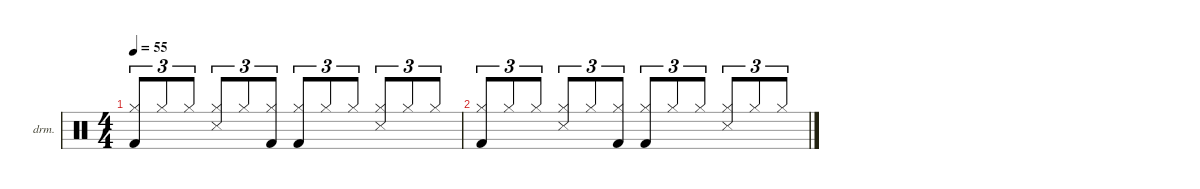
\defaultSystemsLayout 4
\hideDynamics
\bracketExtendMode nobrackets
\firstSystemTrackNameOrientation horizontal
\otherSystemsTrackNameOrientation horizontal
\track ("Drumkit" "drm.") {defaultSystemsLayout 4 instrument percussion}
\staff {score}
\articulation defaults
\ts (4 4)
\tempo 55
\clef neutral
\ks c
("Hi-Hat (closed)" "Kick (hit) 2").8{tu (3 2) dy mf beam Up} "Hi-Hat (closed)".8{tu (3 2) beam Up} "Hi-Hat (closed)".8{tu (3 2) beam Up} ("Hi-Hat (closed)" "Snare (side stick) 3").8{tu (3 2) beam Up} "Hi-Hat (closed)".8{tu (3 2) beam Up} ("Hi-Hat (closed)" "Kick (hit) 2").8{tu (3 2) beam Up} ("Hi-Hat (closed)" "Kick (hit) 2").8{tu (3 2) beam Up} "Hi-Hat (closed)".8{tu (3 2) beam Up} "Hi-Hat (closed)".8{tu (3 2) beam Up} ("Hi-Hat (closed)" "Snare (side stick) 3").8{tu (3 2) beam Up} "Hi-Hat (closed)".8{tu (3 2) beam Up} "Hi-Hat (closed)".8{tu (3 2) beam Up} |
("Hi-Hat (closed)" "Kick (hit) 2").8{tu (3 2) beam Up} "Hi-Hat (closed)".8{tu (3 2) beam Up} "Hi-Hat (closed)".8{tu (3 2) beam Up} ("Hi-Hat (closed)" "Snare (side stick) 3").8{tu (3 2) beam Up} "Hi-Hat (closed)".8{tu (3 2) beam Up} ("Hi-Hat (closed)" "Kick (hit) 2").8{tu (3 2) beam Up} ("Hi-Hat (closed)" "Kick (hit) 2").8{tu (3 2) beam Up} "Hi-Hat (closed)".8{tu (3 2) beam Up} "Hi-Hat (closed)".8{tu (3 2) beam Up} ("Hi-Hat (closed)" "Snare (side stick) 3").8{tu (3 2) beam Up} "Hi-Hat (closed)".8{tu (3 2) beam Up} "Hi-Hat (closed)".8{tu (3 2) beam Up}
